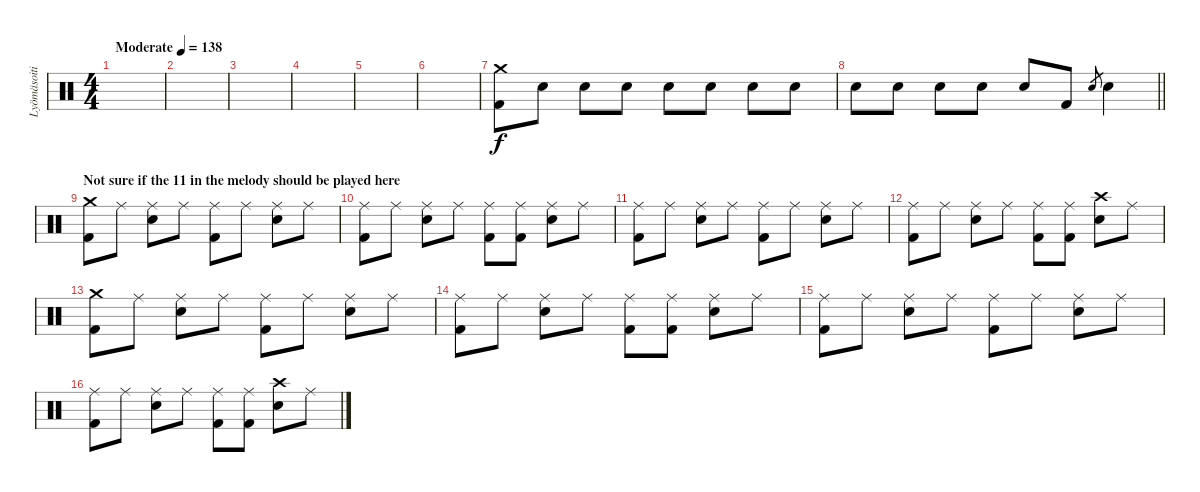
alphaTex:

\track ("Lyömäsoitin" "Lyömäsoiti") {instrument percussion}
\staff {score}
\articulation defaults
\ts (4 4)
\tempo (138 "Moderate")
\clef neutral
\ks c
|
|
|
|
|
|
("Crash medium (hit)" "Kick (hit) 2").8 "Electric Snare (hit)".8{volume 9} "Electric Snare (hit)".8{volume 16} "Electric Snare (hit)".8 "Electric Snare (hit)".8 "Electric Snare (hit)".8 "Electric Snare (hit)".8 "Electric Snare (hit)".8 |
\barLineRight lightlight "Electric Snare (hit)".8 "Electric Snare (hit)".8 "Electric Snare (hit)".8 "Electric Snare (hit)".8 "Electric Snare (hit)".8 "Kick (hit) 2".8 "Electric Snare (hit)".8{gr} "Electric Snare (hit)".4
|
\section ("" "Not sure if the 11 in the melody should be played here")
("Crash medium (hit)" "Kick (hit) 2").8 "Ride (middle)".8 ("Ride (middle)" "Electric Snare (hit)").8 "Ride (middle)".8 ("Ride (middle)" "Kick (hit) 2").8 "Ride (middle)".8 ("Ride (middle)" "Electric Snare (hit)").8 "Ride (middle)".8 |
("Ride (middle)" "Kick (hit) 2").8 "Ride (middle)".8 ("Ride (middle)" "Electric Snare (hit)").8 "Ride (middle)".8 ("Ride (middle)" "Kick (hit) 2").8 ("Ride (middle)" "Kick (hit) 2").8 ("Ride (middle)" "Electric Snare (hit)").8 "Ride (middle)".8 |
("Ride (middle)" "Kick (hit) 2").8 "Ride (middle)".8 ("Ride (middle)" "Electric Snare (hit)").8 "Ride (middle)".8 ("Ride (middle)" "Kick (hit) 2").8 "Ride (middle)".8 ("Ride (middle)" "Electric Snare (hit)").8 "Ride (middle)".8 |
("Ride (middle)" "Kick (hit) 2").8 "Ride (middle)".8 ("Ride (middle)" "Electric Snare (hit)").8 "Ride (middle)".8 ("Ride (middle)" "Kick (hit) 2").8 ("Ride (middle)" "Kick (hit) 2").8 ("Crash high (hit)" "Electric Snare (hit)").8 "Ride (middle)".8 |
("Crash medium (hit)" "Kick (hit) 2").8 "Ride (middle)".8 ("Ride (middle)" "Electric Snare (hit)").8 "Ride (middle)".8 ("Ride (middle)" "Kick (hit) 2").8 "Ride (middle)".8 ("Ride (middle)" "Electric Snare (hit)").8 "Ride (middle)".8 |
("Ride (middle)" "Kick (hit) 2").8 "Ride (middle)".8 ("Ride (middle)" "Electric Snare (hit)").8 "Ride (middle)".8 ("Ride (middle)" "Kick (hit) 2").8 ("Ride (middle)" "Kick (hit) 2").8 ("Ride (middle)" "Electric Snare (hit)").8 "Ride (middle)".8 |
("Ride (middle)" "Kick (hit) 2").8 "Ride (middle)".8 ("Ride (middle)" "Electric Snare (hit)").8 "Ride (middle)".8 ("Ride (middle)" "Kick (hit) 2").8 "Ride (middle)".8 ("Ride (middle)" "Electric Snare (hit)").8 "Ride (middle)".8 |
("Ride (middle)" "Kick (hit) 2").8 "Ride (middle)".8 ("Ride (middle)" "Electric Snare (hit)").8 "Ride (middle)".8 ("Ride (middle)" "Kick (hit) 2").8 ("Ride (middle)" "Kick (hit) 2").8 ("Crash high (hit)" "Electric Snare (hit)").8 "Ride (middle)".8
